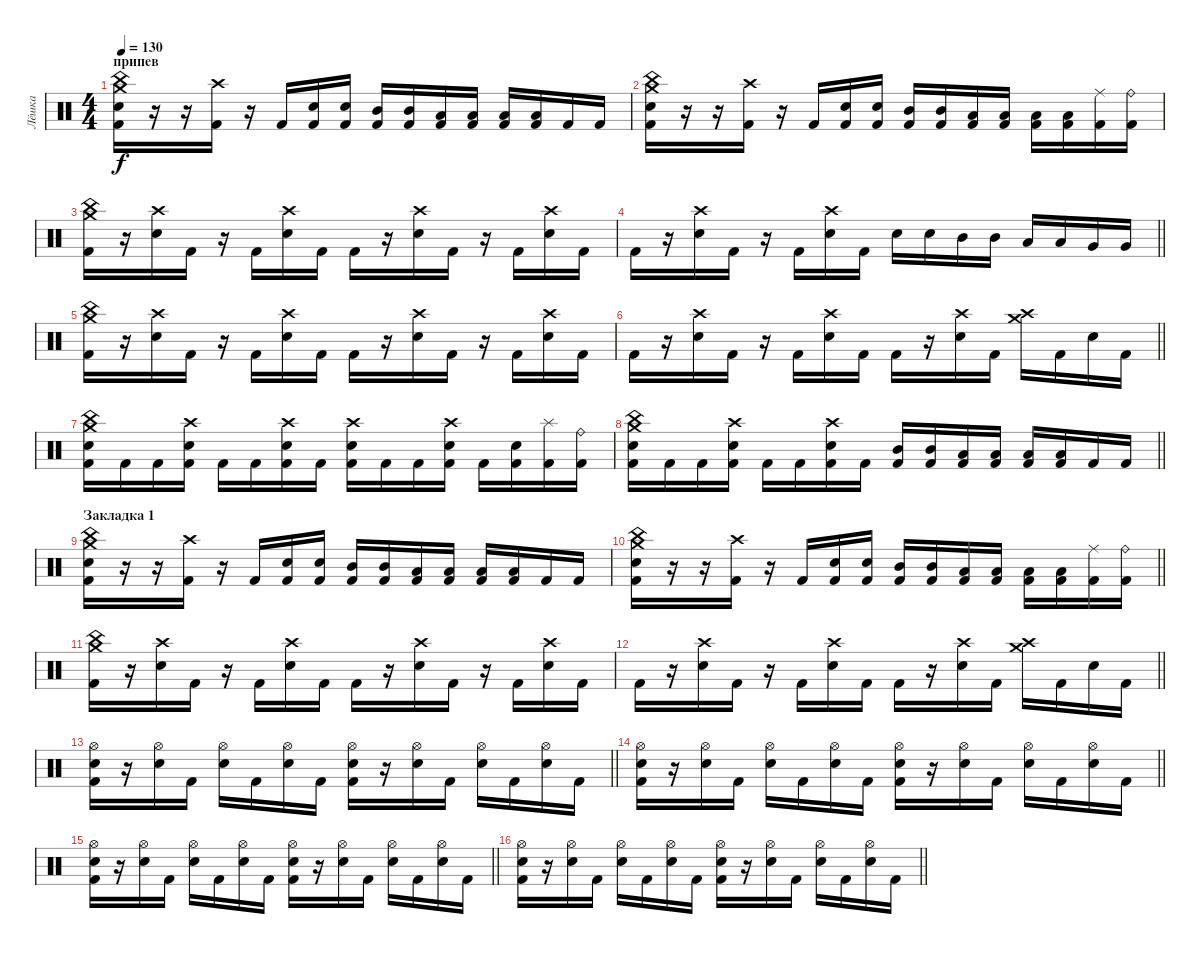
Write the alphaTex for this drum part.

\track ("Лёшка" "Лёшка") {instrument percussion}
\staff {score}
\articulation defaults
\ts (4 4)
\section ("" "припев")
\tempo 130
\clef neutral
\ks c
("China (hit)" "Crash medium (hit)" "Electric Snare (hit)" "Kick (hit) 2").16{dy f} r.16 r.16 ("Crash high (hit)" "Kick (hit) 2").16 r.16 "Kick (hit) 2".16 ("Electric Snare (hit)" "Kick (hit) 2").16 ("Electric Snare (hit)" "Kick (hit) 2").16 ("Mid Tom (hit)" "Kick (hit) 2").16 ("Mid Tom (hit)" "Kick (hit) 2").16 ("Low Tom (hit)" "Kick (hit) 2").16 ("Low Tom (hit)" "Kick (hit) 2").16 ("Low Tom (hit)" "Kick (hit) 2").16 ("Low Tom (hit)" "Kick (hit) 2").16 "Kick (hit) 2".16 "Kick (hit) 2".16 |
("China (hit)" "Crash medium (hit)" "Electric Snare (hit)" "Kick (hit) 2").16 r.16 r.16 ("Crash high (hit)" "Kick (hit) 2").16 r.16 "Kick (hit) 2".16 ("Electric Snare (hit)" "Kick (hit) 2").16 ("Electric Snare (hit)" "Kick (hit) 2").16 ("Mid Tom (hit)" "Kick (hit) 2").16 ("Mid Tom (hit)" "Kick (hit) 2").16 ("Low Tom (hit)" "Kick (hit) 2").16 ("Low Tom (hit)" "Kick (hit) 2").16 ("Low Tom (hit)" "Kick (hit) 2").16 ("Low Tom (hit)" "Kick (hit) 2").16 ("Ride (middle)" "Kick (hit) 2").16 ("Ride (bell)" "Kick (hit) 2").16 |
("China (hit)" "Crash medium (hit)" "Kick (hit) 2").16 r.16 ("Crash high (hit)" "Electric Snare (hit)").16 "Kick (hit) 2".16 r.16 "Kick (hit) 2".16 ("Crash high (hit)" "Electric Snare (hit)").16 "Kick (hit) 2".16 "Kick (hit) 2".16 r.16 ("Crash high (hit)" "Electric Snare (hit)").16 "Kick (hit) 2".16 r.16 "Kick (hit) 2".16 ("Crash high (hit)" "Electric Snare (hit)").16 "Kick (hit) 2".16 |
\barLineRight lightlight "Kick (hit) 2".16
r.16 ("Crash high (hit)" "Electric Snare (hit)").16 "Kick (hit) 2".16 r.16 "Kick (hit) 2".16 ("Crash high (hit)" "Electric Snare (hit)").16 "Kick (hit) 2".16 "Electric Snare (hit)".16 "Electric Snare (hit)".16 "Mid Tom (hit)".16 "Mid Tom (hit)".16 "Low Tom (hit)".16 "Low Tom (hit)".16 "Very Low Tom (hit)".16 "Very Low Tom (hit)".16 |
("China (hit)" "Crash medium (hit)" "Kick (hit) 2").16 r.16 ("Crash high (hit)" "Electric Snare (hit)").16 "Kick (hit) 2".16 r.16 "Kick (hit) 2".16 ("Crash high (hit)" "Electric Snare (hit)").16 "Kick (hit) 2".16 "Kick (hit) 2".16 r.16 ("Crash high (hit)" "Electric Snare (hit)").16 "Kick (hit) 2".16 r.16 "Kick (hit) 2".16 ("Crash high (hit)" "Electric Snare (hit)").16 "Kick (hit) 2".16 |
\barLineRight lightlight "Kick (hit) 2".16
r.16 ("Crash high (hit)" "Electric Snare (hit)").16 "Kick (hit) 2".16 r.16 "Kick (hit) 2".16 ("Crash high (hit)" "Electric Snare (hit)").16 "Kick (hit) 2".16 "Kick (hit) 2".16 r.16 ("Crash high (hit)" "Electric Snare (hit)").16 "Kick (hit) 2".16 ("Crash medium (hit)" "Crash high (hit)").16 "Kick (hit) 2".16 "Electric Snare (hit)".16 "Kick (hit) 2".16 |
("China (hit)" "Crash medium (hit)" "Electric Snare (hit)" "Kick (hit) 2").16 "Kick (hit) 2".16 "Kick (hit) 2".16 ("Crash high (hit)" "Electric Snare (hit)" "Kick (hit) 2").16 "Kick (hit) 2".16 "Kick (hit) 2".16 ("Crash high (hit)" "Electric Snare (hit)" "Kick (hit) 2").16 "Kick (hit) 2".16 ("Crash high (hit)" "Electric Snare (hit)" "Kick (hit) 2").16 "Kick (hit) 2".16 "Kick (hit) 2".16 ("Crash high (hit)" "Electric Snare (hit)" "Kick (hit) 2").16 "Kick (hit) 2".16 ("Electric Snare (hit)" "Kick (hit) 2").16 ("Splash (hit)" "Kick (hit) 2").16 ("Ride (bell)" "Kick (hit) 2").16 |
\barLineRight lightlight
("China (hit)" "Crash medium (hit)" "Electric Snare (hit)" "Kick (hit) 2").16 "Kick (hit) 2".16 "Kick (hit) 2".16 ("Crash high (hit)" "Electric Snare (hit)" "Kick (hit) 2").16 "Kick (hit) 2".16 "Kick (hit) 2".16 ("Crash high (hit)" "Electric Snare (hit)" "Kick (hit) 2").16 "Kick (hit) 2".16 ("Mid Tom (hit)" "Kick (hit) 2").16 ("Mid Tom (hit)" "Kick (hit) 2").16 ("Low Tom (hit)" "Kick (hit) 2").16 ("Low Tom (hit)" "Kick (hit) 2").16 ("Low Tom (hit)" "Kick (hit) 2").16 ("Low Tom (hit)" "Kick (hit) 2").16 "Kick (hit) 2".16 "Kick (hit) 2".16 |
\section ("" "Закладка 1")
("China (hit)" "Crash medium (hit)" "Electric Snare (hit)" "Kick (hit) 2").16 r.16 r.16 ("Crash high (hit)" "Kick (hit) 2").16 r.16 "Kick (hit) 2".16 ("Electric Snare (hit)" "Kick (hit) 2").16 ("Electric Snare (hit)" "Kick (hit) 2").16 ("Mid Tom (hit)" "Kick (hit) 2").16 ("Mid Tom (hit)" "Kick (hit) 2").16 ("Low Tom (hit)" "Kick (hit) 2").16 ("Low Tom (hit)" "Kick (hit) 2").16 ("Low Tom (hit)" "Kick (hit) 2").16 ("Low Tom (hit)" "Kick (hit) 2").16 "Kick (hit) 2".16 "Kick (hit) 2".16 |
\barLineRight lightlight
("China (hit)" "Crash medium (hit)" "Electric Snare (hit)" "Kick (hit) 2").16 r.16 r.16 ("Crash high (hit)" "Kick (hit) 2").16 r.16 "Kick (hit) 2".16 ("Electric Snare (hit)" "Kick (hit) 2").16 ("Electric Snare (hit)" "Kick (hit) 2").16 ("Mid Tom (hit)" "Kick (hit) 2").16 ("Mid Tom (hit)" "Kick (hit) 2").16 ("Low Tom (hit)" "Kick (hit) 2").16 ("Low Tom (hit)" "Kick (hit) 2").16 ("Low Tom (hit)" "Kick (hit) 2").16 ("Low Tom (hit)" "Kick (hit) 2").16 ("Ride (middle)" "Kick (hit) 2").16 ("Ride (bell)" "Kick (hit) 2").16 |
("China (hit)" "Crash medium (hit)" "Kick (hit) 2").16 r.16 ("Crash high (hit)" "Electric Snare (hit)").16 "Kick (hit) 2".16 r.16 "Kick (hit) 2".16 ("Crash high (hit)" "Electric Snare (hit)").16 "Kick (hit) 2".16 "Kick (hit) 2".16 r.16 ("Crash high (hit)" "Electric Snare (hit)").16 "Kick (hit) 2".16 r.16 "Kick (hit) 2".16 ("Crash high (hit)" "Electric Snare (hit)").16 "Kick (hit) 2".16 |
\barLineRight lightlight "Kick (hit) 2".16
r.16 ("Crash high (hit)" "Electric Snare (hit)").16 "Kick (hit) 2".16 r.16 "Kick (hit) 2".16 ("Crash high (hit)" "Electric Snare (hit)").16 "Kick (hit) 2".16 "Kick (hit) 2".16 r.16 ("Crash high (hit)" "Electric Snare (hit)").16 "Kick (hit) 2".16 ("Crash medium (hit)" "Crash high (hit)").16 "Kick (hit) 2".16 "Electric Snare (hit)".16 "Kick (hit) 2".16 |
\barLineRight lightlight
("Hi-Hat (open)" "Electric Snare (hit)" "Kick (hit) 2").16 r.16 ("Hi-Hat (open)" "Electric Snare (hit)").16 "Kick (hit) 2".16 ("Hi-Hat (open)" "Electric Snare (hit)").16 "Kick (hit) 2".16 ("Hi-Hat (open)" "Electric Snare (hit)").16 "Kick (hit) 2".16 ("Hi-Hat (open)" "Electric Snare (hit)" "Kick (hit) 2").16 r.16 ("Hi-Hat (open)" "Electric Snare (hit)").16 "Kick (hit) 2".16 ("Hi-Hat (open)" "Electric Snare (hit)").16 "Kick (hit) 2".16 ("Hi-Hat (open)" "Electric Snare (hit)").16 "Kick (hit) 2".16 |
\barLineRight lightlight
("Hi-Hat (open)" "Electric Snare (hit)" "Kick (hit) 2").16 r.16 ("Hi-Hat (open)" "Electric Snare (hit)").16 "Kick (hit) 2".16 ("Hi-Hat (open)" "Electric Snare (hit)").16 "Kick (hit) 2".16 ("Hi-Hat (open)" "Electric Snare (hit)").16 "Kick (hit) 2".16 ("Hi-Hat (open)" "Electric Snare (hit)" "Kick (hit) 2").16 r.16 ("Hi-Hat (open)" "Electric Snare (hit)").16 "Kick (hit) 2".16 ("Hi-Hat (open)" "Electric Snare (hit)").16 "Kick (hit) 2".16 ("Hi-Hat (open)" "Electric Snare (hit)").16 "Kick (hit) 2".16 |
\barLineRight lightlight
("Hi-Hat (open)" "Electric Snare (hit)" "Kick (hit) 2").16 r.16 ("Hi-Hat (open)" "Electric Snare (hit)").16 "Kick (hit) 2".16 ("Hi-Hat (open)" "Electric Snare (hit)").16 "Kick (hit) 2".16 ("Hi-Hat (open)" "Electric Snare (hit)").16 "Kick (hit) 2".16 ("Hi-Hat (open)" "Electric Snare (hit)" "Kick (hit) 2").16 r.16 ("Hi-Hat (open)" "Electric Snare (hit)").16 "Kick (hit) 2".16 ("Hi-Hat (open)" "Electric Snare (hit)").16 "Kick (hit) 2".16 ("Hi-Hat (open)" "Electric Snare (hit)").16 "Kick (hit) 2".16 |
\barLineRight lightlight
("Hi-Hat (open)" "Electric Snare (hit)" "Kick (hit) 2").16 r.16 ("Hi-Hat (open)" "Electric Snare (hit)").16 "Kick (hit) 2".16 ("Hi-Hat (open)" "Electric Snare (hit)").16 "Kick (hit) 2".16 ("Hi-Hat (open)" "Electric Snare (hit)").16 "Kick (hit) 2".16 ("Hi-Hat (open)" "Electric Snare (hit)" "Kick (hit) 2").16 r.16 ("Hi-Hat (open)" "Electric Snare (hit)").16 "Kick (hit) 2".16 ("Hi-Hat (open)" "Electric Snare (hit)").16 "Kick (hit) 2".16 ("Hi-Hat (open)" "Electric Snare (hit)").16 "Kick (hit) 2".16
